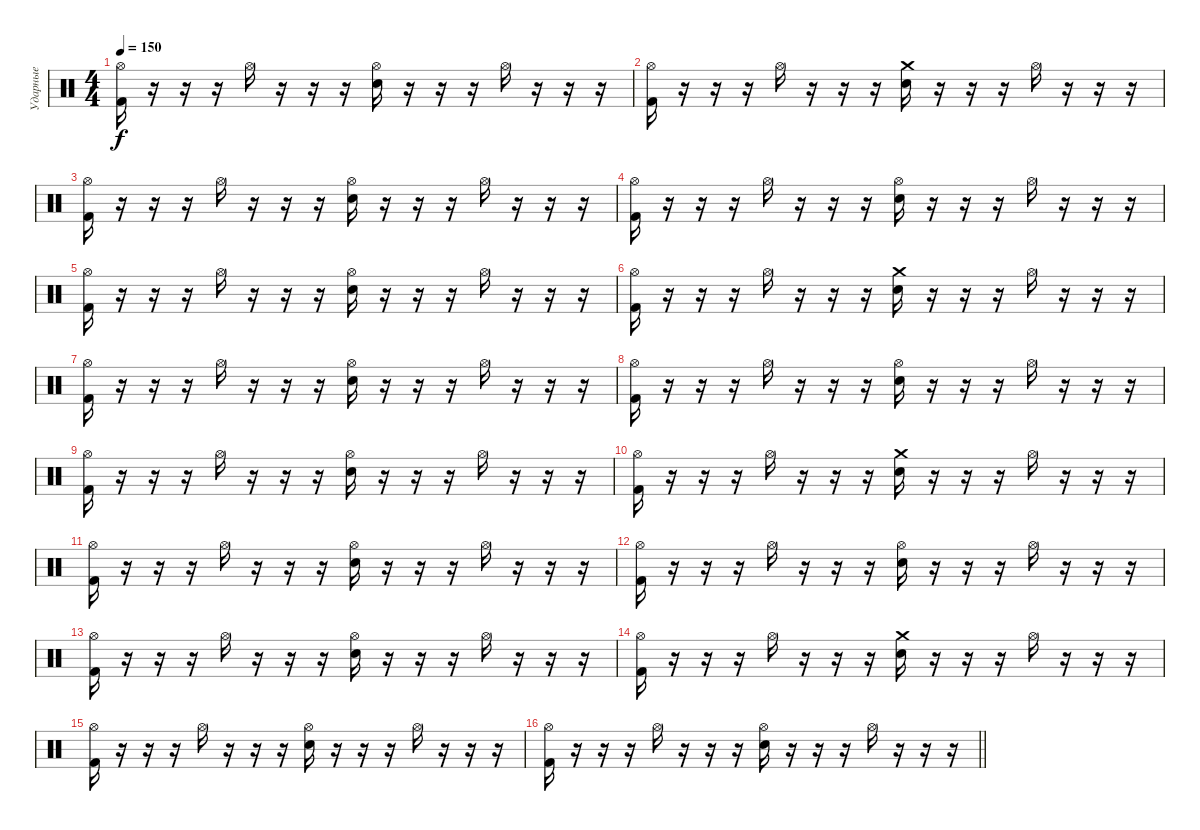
\track ("Ударные" "Ударные") {instrument percussion}
\staff {score}
\articulation defaults
\ts (4 4)
\tempo 150
\clef neutral
\ks c
("Hi-Hat (open)" "Kick (hit) 2").16{dy f} r.16 r.16 r.16 "Hi-Hat (open)".16 r.16 r.16 r.16 ("Hi-Hat (open)" "Electric Snare (hit)").16 r.16 r.16 r.16 "Hi-Hat (open)".16 r.16 r.16 r.16 |
("Hi-Hat (open)" "Kick (hit) 2").16 r.16 r.16 r.16 "Hi-Hat (open)".16 r.16 r.16 r.16 ("Crash medium (hit)" "Electric Snare (hit)").16 r.16 r.16 r.16 "Hi-Hat (open)".16 r.16 r.16 r.16 |
("Hi-Hat (open)" "Kick (hit) 2").16 r.16 r.16 r.16 "Hi-Hat (open)".16 r.16 r.16 r.16 ("Hi-Hat (open)" "Electric Snare (hit)").16 r.16 r.16 r.16 "Hi-Hat (open)".16 r.16 r.16 r.16 |
("Hi-Hat (open)" "Kick (hit) 2").16 r.16 r.16 r.16 "Hi-Hat (open)".16 r.16 r.16 r.16 ("Hi-Hat (open)" "Electric Snare (hit)").16 r.16 r.16 r.16 "Hi-Hat (open)".16 r.16 r.16 r.16 |
("Hi-Hat (open)" "Kick (hit) 2").16 r.16 r.16 r.16 "Hi-Hat (open)".16 r.16 r.16 r.16 ("Hi-Hat (open)" "Electric Snare (hit)").16 r.16 r.16 r.16 "Hi-Hat (open)".16 r.16 r.16 r.16 |
("Hi-Hat (open)" "Kick (hit) 2").16 r.16 r.16 r.16 "Hi-Hat (open)".16 r.16 r.16 r.16 ("Crash medium (hit)" "Electric Snare (hit)").16 r.16 r.16 r.16 "Hi-Hat (open)".16 r.16 r.16 r.16 |
("Hi-Hat (open)" "Kick (hit) 2").16 r.16 r.16 r.16 "Hi-Hat (open)".16 r.16 r.16 r.16 ("Hi-Hat (open)" "Electric Snare (hit)").16 r.16 r.16 r.16 "Hi-Hat (open)".16 r.16 r.16 r.16 |
("Hi-Hat (open)" "Kick (hit) 2").16 r.16 r.16 r.16 "Hi-Hat (open)".16 r.16 r.16 r.16 ("Hi-Hat (open)" "Electric Snare (hit)").16 r.16 r.16 r.16 "Hi-Hat (open)".16 r.16 r.16 r.16 |
("Hi-Hat (open)" "Kick (hit) 2").16 r.16 r.16 r.16 "Hi-Hat (open)".16 r.16 r.16 r.16 ("Hi-Hat (open)" "Electric Snare (hit)").16 r.16 r.16 r.16 "Hi-Hat (open)".16 r.16 r.16 r.16 |
("Hi-Hat (open)" "Kick (hit) 2").16 r.16 r.16 r.16 "Hi-Hat (open)".16 r.16 r.16 r.16 ("Crash medium (hit)" "Electric Snare (hit)").16 r.16 r.16 r.16 "Hi-Hat (open)".16 r.16 r.16 r.16 |
("Hi-Hat (open)" "Kick (hit) 2").16 r.16 r.16 r.16 "Hi-Hat (open)".16 r.16 r.16 r.16 ("Hi-Hat (open)" "Electric Snare (hit)").16 r.16 r.16 r.16 "Hi-Hat (open)".16 r.16 r.16 r.16 |
("Hi-Hat (open)" "Kick (hit) 2").16 r.16 r.16 r.16 "Hi-Hat (open)".16 r.16 r.16 r.16 ("Hi-Hat (open)" "Electric Snare (hit)").16 r.16 r.16 r.16 "Hi-Hat (open)".16 r.16 r.16 r.16 |
("Hi-Hat (open)" "Kick (hit) 2").16 r.16 r.16 r.16 "Hi-Hat (open)".16 r.16 r.16 r.16 ("Hi-Hat (open)" "Electric Snare (hit)").16 r.16 r.16 r.16 "Hi-Hat (open)".16 r.16 r.16 r.16 |
("Hi-Hat (open)" "Kick (hit) 2").16 r.16 r.16 r.16 "Hi-Hat (open)".16 r.16 r.16 r.16 ("Crash medium (hit)" "Electric Snare (hit)").16 r.16 r.16 r.16 "Hi-Hat (open)".16 r.16 r.16 r.16 |
("Hi-Hat (open)" "Kick (hit) 2").16 r.16 r.16 r.16 "Hi-Hat (open)".16 r.16 r.16 r.16 ("Hi-Hat (open)" "Electric Snare (hit)").16 r.16 r.16 r.16 "Hi-Hat (open)".16 r.16 r.16 r.16 |
\barLineRight lightlight
("Hi-Hat (open)" "Kick (hit) 2").16 r.16 r.16 r.16 "Hi-Hat (open)".16 r.16 r.16 r.16 ("Hi-Hat (open)" "Electric Snare (hit)").16 r.16 r.16 r.16 "Hi-Hat (open)".16 r.16 r.16 r.16
